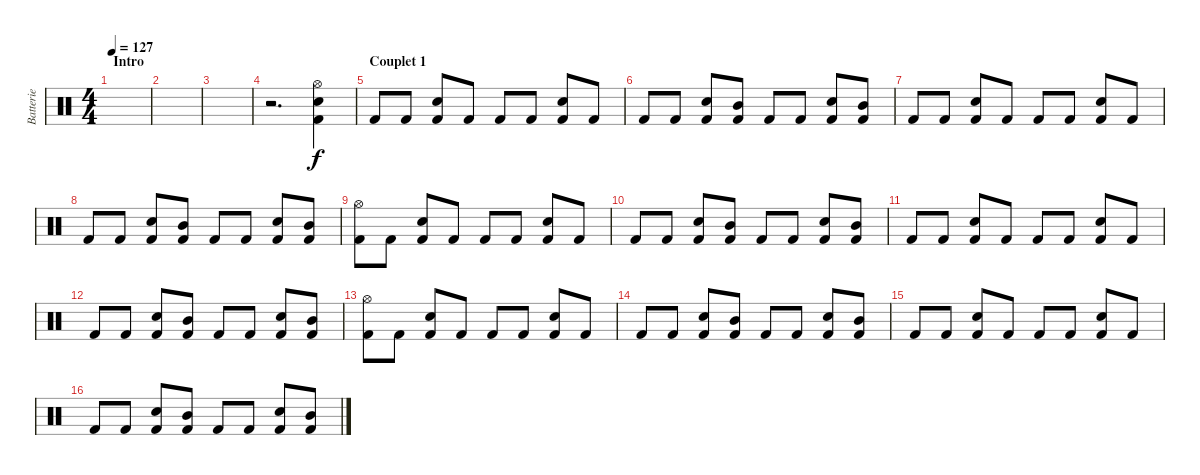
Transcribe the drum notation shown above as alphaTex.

\track ("Batterie" "Batterie") {instrument percussion}
\staff {score}
\articulation defaults
\ts (4 4)
\section ("" "Intro")
\tempo 127
\clef neutral
\ks c
|
|
|
r.2{d} ("Hi-Hat (open)" "Electric Snare (hit)" "Kick (hit) 2").4 |
\section ("" "Couplet 1")
"Kick (hit) 2".8 "Kick (hit) 2".8 ("Electric Snare (hit)" "Kick (hit) 2").8 "Kick (hit) 2".8 "Kick (hit) 2".8 "Kick (hit) 2".8 ("Electric Snare (hit)" "Kick (hit) 2").8 "Kick (hit) 2".8 |
"Kick (hit) 2".8 "Kick (hit) 2".8 ("Electric Snare (hit)" "Kick (hit) 2").8 ("Mid Tom (hit)" "Kick (hit) 2").8 "Kick (hit) 2".8 "Kick (hit) 2".8 ("Electric Snare (hit)" "Kick (hit) 2").8 ("Mid Tom (hit)" "Kick (hit) 2").8 |
"Kick (hit) 2".8 "Kick (hit) 2".8 ("Electric Snare (hit)" "Kick (hit) 2").8 "Kick (hit) 2".8 "Kick (hit) 2".8 "Kick (hit) 2".8 ("Electric Snare (hit)" "Kick (hit) 2").8 "Kick (hit) 2".8 |
"Kick (hit) 2".8 "Kick (hit) 2".8 ("Electric Snare (hit)" "Kick (hit) 2").8 ("Mid Tom (hit)" "Kick (hit) 2").8 "Kick (hit) 2".8 "Kick (hit) 2".8 ("Electric Snare (hit)" "Kick (hit) 2").8 ("Mid Tom (hit)" "Kick (hit) 2").8 |
("Hi-Hat (open)" "Kick (hit) 2").8 "Kick (hit) 2".8 ("Electric Snare (hit)" "Kick (hit) 2").8 "Kick (hit) 2".8 "Kick (hit) 2".8 "Kick (hit) 2".8 ("Electric Snare (hit)" "Kick (hit) 2").8 "Kick (hit) 2".8 |
"Kick (hit) 2".8 "Kick (hit) 2".8 ("Electric Snare (hit)" "Kick (hit) 2").8 ("Mid Tom (hit)" "Kick (hit) 2").8 "Kick (hit) 2".8 "Kick (hit) 2".8 ("Electric Snare (hit)" "Kick (hit) 2").8 ("Mid Tom (hit)" "Kick (hit) 2").8 |
"Kick (hit) 2".8 "Kick (hit) 2".8 ("Electric Snare (hit)" "Kick (hit) 2").8 "Kick (hit) 2".8 "Kick (hit) 2".8 "Kick (hit) 2".8 ("Electric Snare (hit)" "Kick (hit) 2").8 "Kick (hit) 2".8 |
"Kick (hit) 2".8 "Kick (hit) 2".8 ("Electric Snare (hit)" "Kick (hit) 2").8 ("Mid Tom (hit)" "Kick (hit) 2").8 "Kick (hit) 2".8 "Kick (hit) 2".8 ("Electric Snare (hit)" "Kick (hit) 2").8 ("Mid Tom (hit)" "Kick (hit) 2").8 |
("Hi-Hat (open)" "Kick (hit) 2").8 "Kick (hit) 2".8 ("Electric Snare (hit)" "Kick (hit) 2").8 "Kick (hit) 2".8 "Kick (hit) 2".8 "Kick (hit) 2".8 ("Electric Snare (hit)" "Kick (hit) 2").8 "Kick (hit) 2".8 |
"Kick (hit) 2".8 "Kick (hit) 2".8 ("Electric Snare (hit)" "Kick (hit) 2").8 ("Mid Tom (hit)" "Kick (hit) 2").8 "Kick (hit) 2".8 "Kick (hit) 2".8 ("Electric Snare (hit)" "Kick (hit) 2").8 ("Mid Tom (hit)" "Kick (hit) 2").8 |
"Kick (hit) 2".8 "Kick (hit) 2".8 ("Electric Snare (hit)" "Kick (hit) 2").8 "Kick (hit) 2".8 "Kick (hit) 2".8 "Kick (hit) 2".8 ("Electric Snare (hit)" "Kick (hit) 2").8 "Kick (hit) 2".8 |
"Kick (hit) 2".8 "Kick (hit) 2".8 ("Electric Snare (hit)" "Kick (hit) 2").8 ("Mid Tom (hit)" "Kick (hit) 2").8 "Kick (hit) 2".8 "Kick (hit) 2".8 ("Electric Snare (hit)" "Kick (hit) 2").8 ("Mid Tom (hit)" "Kick (hit) 2").8
